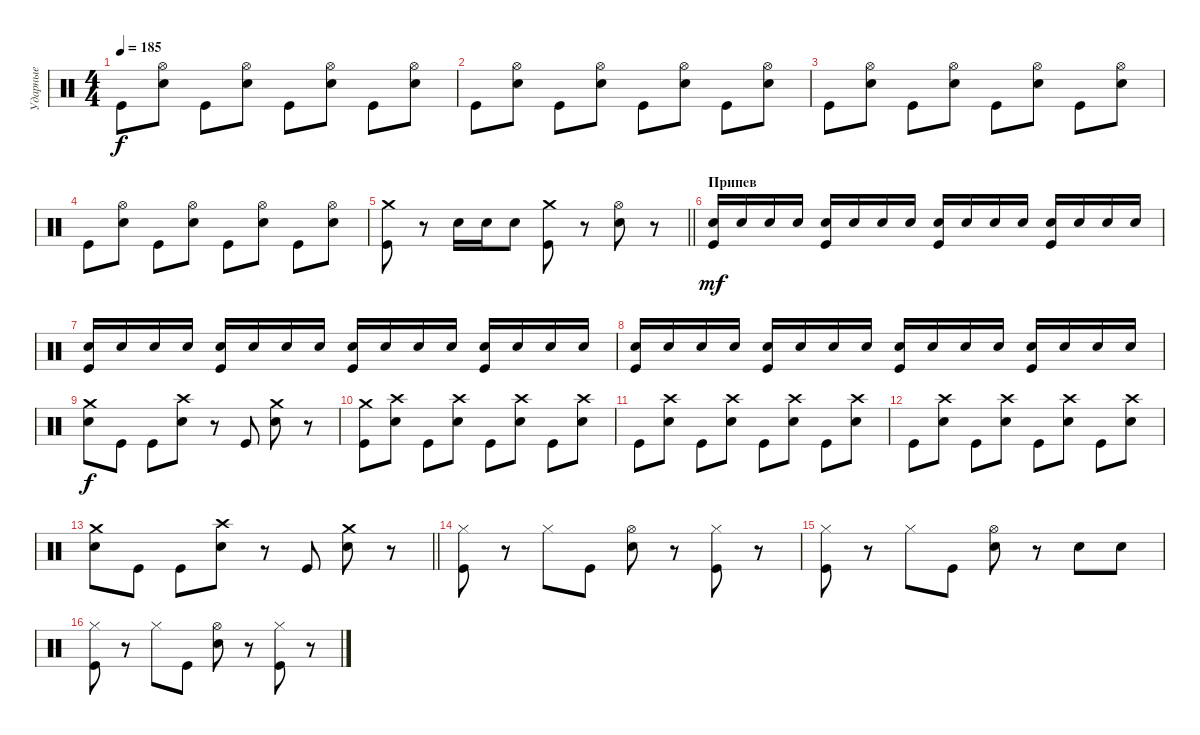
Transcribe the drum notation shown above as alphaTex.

\track ("Ударные" "Ударные") {instrument percussion}
\staff {score}
\articulation defaults
\ts (4 4)
\tempo 185
\clef neutral
\ks c "Kick (hit)".8{dy f}
("Hi-Hat (open)" "Electric Snare (hit)").8 "Kick (hit)".8 ("Hi-Hat (open)" "Electric Snare (hit)").8 "Kick (hit)".8 ("Hi-Hat (open)" "Electric Snare (hit)").8 "Kick (hit)".8 ("Hi-Hat (open)" "Electric Snare (hit)").8 |
"Kick (hit)".8 ("Hi-Hat (open)" "Electric Snare (hit)").8 "Kick (hit)".8 ("Hi-Hat (open)" "Electric Snare (hit)").8 "Kick (hit)".8 ("Hi-Hat (open)" "Electric Snare (hit)").8 "Kick (hit)".8 ("Hi-Hat (open)" "Electric Snare (hit)").8 |
"Kick (hit)".8 ("Hi-Hat (open)" "Electric Snare (hit)").8 "Kick (hit)".8 ("Hi-Hat (open)" "Electric Snare (hit)").8 "Kick (hit)".8 ("Hi-Hat (open)" "Electric Snare (hit)").8 "Kick (hit)".8 ("Hi-Hat (open)" "Electric Snare (hit)").8 |
"Kick (hit)".8 ("Hi-Hat (open)" "Electric Snare (hit)").8 "Kick (hit)".8 ("Hi-Hat (open)" "Electric Snare (hit)").8 "Kick (hit)".8 ("Hi-Hat (open)" "Electric Snare (hit)").8 "Kick (hit)".8 ("Hi-Hat (open)" "Electric Snare (hit)").8 |
\barLineRight lightlight
("Crash medium (hit)" "Kick (hit)").8 r.8 "Electric Snare (hit)".16 "Electric Snare (hit)".16 "Electric Snare (hit)".8 ("Crash medium (hit)" "Kick (hit)").8 r.8 ("Hi-Hat (open)" "Electric Snare (hit)").8 r.8 |
\section ("" "Припев")
("Electric Snare (hit)" "Kick (hit)").16{dy mf} "Electric Snare (hit)".16 "Electric Snare (hit)".16 "Electric Snare (hit)".16 ("Electric Snare (hit)" "Kick (hit)").16 "Electric Snare (hit)".16 "Electric Snare (hit)".16 "Electric Snare (hit)".16 ("Electric Snare (hit)" "Kick (hit)").16 "Electric Snare (hit)".16 "Electric Snare (hit)".16 "Electric Snare (hit)".16 ("Electric Snare (hit)" "Kick (hit)").16 "Electric Snare (hit)".16 "Electric Snare (hit)".16 "Electric Snare (hit)".16 |
("Electric Snare (hit)" "Kick (hit)").16 "Electric Snare (hit)".16 "Electric Snare (hit)".16 "Electric Snare (hit)".16 ("Electric Snare (hit)" "Kick (hit)").16 "Electric Snare (hit)".16 "Electric Snare (hit)".16 "Electric Snare (hit)".16 ("Electric Snare (hit)" "Kick (hit)").16 "Electric Snare (hit)".16 "Electric Snare (hit)".16 "Electric Snare (hit)".16 ("Electric Snare (hit)" "Kick (hit)").16 "Electric Snare (hit)".16 "Electric Snare (hit)".16 "Electric Snare (hit)".16 |
("Electric Snare (hit)" "Kick (hit)").16 "Electric Snare (hit)".16 "Electric Snare (hit)".16 "Electric Snare (hit)".16 ("Electric Snare (hit)" "Kick (hit)").16 "Electric Snare (hit)".16 "Electric Snare (hit)".16 "Electric Snare (hit)".16 ("Electric Snare (hit)" "Kick (hit)").16 "Electric Snare (hit)".16 "Electric Snare (hit)".16 "Electric Snare (hit)".16 ("Electric Snare (hit)" "Kick (hit)").16 "Electric Snare (hit)".16 "Electric Snare (hit)".16 "Electric Snare (hit)".16 |
("Crash medium (hit)" "Electric Snare (hit)").8{dy f} "Kick (hit)".8 "Kick (hit)".8 ("Crash high (hit)" "Electric Snare (hit)").8 r.8 "Kick (hit)".8 ("Crash medium (hit)" "Electric Snare (hit)").8 r.8 |
("Crash medium (hit)" "Kick (hit)").8 ("Crash high (hit)" "Electric Snare (hit)").8 "Kick (hit)".8 ("Crash high (hit)" "Electric Snare (hit)").8 "Kick (hit)".8 ("Crash high (hit)" "Electric Snare (hit)").8 "Kick (hit)".8 ("Crash high (hit)" "Electric Snare (hit)").8 |
"Kick (hit)".8 ("Crash high (hit)" "Electric Snare (hit)").8 "Kick (hit)".8 ("Crash high (hit)" "Electric Snare (hit)").8 "Kick (hit)".8 ("Crash high (hit)" "Electric Snare (hit)").8 "Kick (hit)".8 ("Crash high (hit)" "Electric Snare (hit)").8 |
"Kick (hit)".8 ("Crash high (hit)" "Electric Snare (hit)").8 "Kick (hit)".8 ("Crash high (hit)" "Electric Snare (hit)").8 "Kick (hit)".8 ("Crash high (hit)" "Electric Snare (hit)").8 "Kick (hit)".8 ("Crash high (hit)" "Electric Snare (hit)").8 |
\barLineRight lightlight
("Crash medium (hit)" "Electric Snare (hit)").8 "Kick (hit)".8 "Kick (hit)".8 ("Crash high (hit)" "Electric Snare (hit)").8 r.8 "Kick (hit)".8 ("Crash medium (hit)" "Electric Snare (hit)").8 r.8 |
\section ("" " ")
("Hi-Hat (closed)" "Kick (hit)").8 r.8 "Hi-Hat (closed)".8 "Kick (hit)".8 ("Hi-Hat (open)" "Electric Snare (hit)").8 r.8 ("Hi-Hat (closed)" "Kick (hit)").8 r.8 |
("Hi-Hat (closed)" "Kick (hit)").8 r.8 "Hi-Hat (closed)".8 "Kick (hit)".8 ("Hi-Hat (open)" "Electric Snare (hit)").8 r.8 "Electric Snare (hit)".8 "Electric Snare (hit)".8 |
("Hi-Hat (closed)" "Kick (hit)").8 r.8 "Hi-Hat (closed)".8 "Kick (hit)".8 ("Hi-Hat (open)" "Electric Snare (hit)").8 r.8 ("Hi-Hat (closed)" "Kick (hit)").8 r.8
